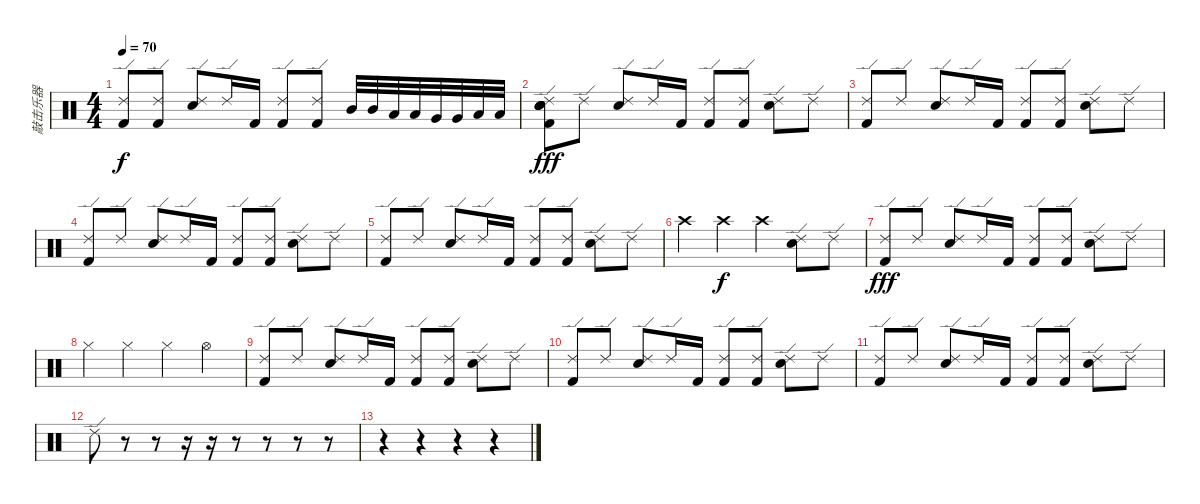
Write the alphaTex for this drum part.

\track ("敲击乐器" "敲击乐器") {instrument percussion}
\staff {score}
\articulation defaults
\ts (4 4)
\tempo 70
\clef neutral
\ks c
("Ride (edge) 2" "Kick (hit) 2").8{dy f} ("Ride (edge) 2" "Kick (hit) 2").8 ("Ride (edge) 2" "Snare (hit) 2").8 "Ride (edge) 2".16 "Kick (hit) 2".16 ("Ride (edge) 2" "Kick (hit) 2").8 ("Ride (edge) 2" "Kick (hit) 2").8 "Mid Tom (hit)".32 "Mid Tom (hit)".32 "Low Tom (hit)".32 "Low Tom (hit)".32 "Very Low Tom (hit)".32 "Very Low Tom (hit)".32 "Low Floor Tom (hit)".32 "Low Floor Tom (hit)".32 |
("Ride (edge) 2" "Snare (hit)" "Snare (hit)" "Snare (hit)" "Kick (hit) 2").8{dy fff} "Ride (edge) 2".8 ("Ride (edge) 2" "Snare (hit) 2").8 "Ride (edge) 2".16 "Kick (hit) 2".16 ("Ride (edge) 2" "Kick (hit) 2").8 ("Ride (edge) 2" "Kick (hit) 2").8 ("Ride (edge) 2" "Snare (hit) 2").8 "Ride (edge) 2".8 |
("Ride (edge) 2" "Kick (hit) 2").8 "Ride (edge) 2".8 ("Ride (edge) 2" "Snare (hit) 2").8 "Ride (edge) 2".16 "Kick (hit) 2".16 ("Ride (edge) 2" "Kick (hit) 2").8 ("Ride (edge) 2" "Kick (hit) 2").8 ("Ride (edge) 2" "Snare (hit) 2").8 "Ride (edge) 2".8 |
("Ride (edge) 2" "Kick (hit) 2").8 "Ride (edge) 2".8 ("Ride (edge) 2" "Snare (hit) 2").8 "Ride (edge) 2".16 "Kick (hit) 2".16 ("Ride (edge) 2" "Kick (hit) 2").8 ("Ride (edge) 2" "Kick (hit) 2").8 ("Ride (edge) 2" "Snare (hit) 2").8 "Ride (edge) 2".8 |
("Ride (edge) 2" "Kick (hit) 2").8 "Ride (edge) 2".8 ("Ride (edge) 2" "Snare (hit) 2").8 "Ride (edge) 2".16 "Kick (hit) 2".16 ("Ride (edge) 2" "Kick (hit) 2").8 ("Ride (edge) 2" "Kick (hit) 2").8 ("Ride (edge) 2" "Snare (hit) 2").8 "Ride (edge) 2".8 |
"Crash high (hit)".4 "Crash high (hit)".4{dy f} "Crash high (hit)".4 ("Ride (edge) 2" "Snare (hit) 2").8 "Ride (edge) 2".8 |
("Ride (edge) 2" "Kick (hit) 2").8{dy fff} "Ride (edge) 2".8 ("Ride (edge) 2" "Snare (hit) 2").8 "Ride (edge) 2".16 "Kick (hit) 2".16 ("Ride (edge) 2" "Kick (hit) 2").8 ("Ride (edge) 2" "Kick (hit) 2").8 ("Ride (edge) 2" "Snare (hit) 2").8 "Ride (edge) 2".8 |
"Hi-Hat (closed)".4 "Hi-Hat (closed)".4 "Hi-Hat (closed)".4 "Hi-Hat (open)".4 |
("Ride (edge) 2" "Kick (hit) 2").8 "Ride (edge) 2".8 ("Ride (edge) 2" "Snare (hit) 2").8 "Ride (edge) 2".16 "Kick (hit) 2".16 ("Ride (edge) 2" "Kick (hit) 2").8 ("Ride (edge) 2" "Kick (hit) 2").8 ("Ride (edge) 2" "Snare (hit) 2").8 "Ride (edge) 2".8 |
("Ride (edge) 2" "Kick (hit) 2").8 "Ride (edge) 2".8 ("Ride (edge) 2" "Snare (hit) 2").8 "Ride (edge) 2".16 "Kick (hit) 2".16 ("Ride (edge) 2" "Kick (hit) 2").8 ("Ride (edge) 2" "Kick (hit) 2").8 ("Ride (edge) 2" "Snare (hit) 2").8 "Ride (edge) 2".8 |
("Ride (edge) 2" "Kick (hit) 2").8 "Ride (edge) 2".8 ("Ride (edge) 2" "Snare (hit) 2").8 "Ride (edge) 2".16 "Kick (hit) 2".16 ("Ride (edge) 2" "Kick (hit) 2").8 ("Ride (edge) 2" "Kick (hit) 2").8 ("Ride (edge) 2" "Snare (hit) 2").8 "Ride (edge) 2".8 |
"Ride (edge) 2".8 r.8 r.8 r.16 r.16 r.8 r.8 r.8 r.8 |
r.4 r.4 r.4 r.4
